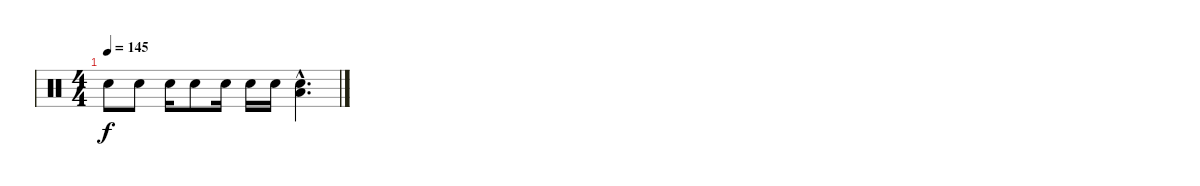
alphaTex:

\track "" {instrument percussion}
\staff {score}
\articulation defaults
\ts (4 4)
\tempo 145
\clef neutral
\ks c "Electric Snare (hit)".8{dy f} "Electric Snare (hit)".8 "Electric Snare (hit)".16 "Electric Snare (hit)".8 "Electric Snare (hit)".16 "Electric Snare (hit)".16 "Electric Snare (hit)".16
("Low Tom (hit)"{hac} "Electric Snare (hit)"{hac}).4{d}
